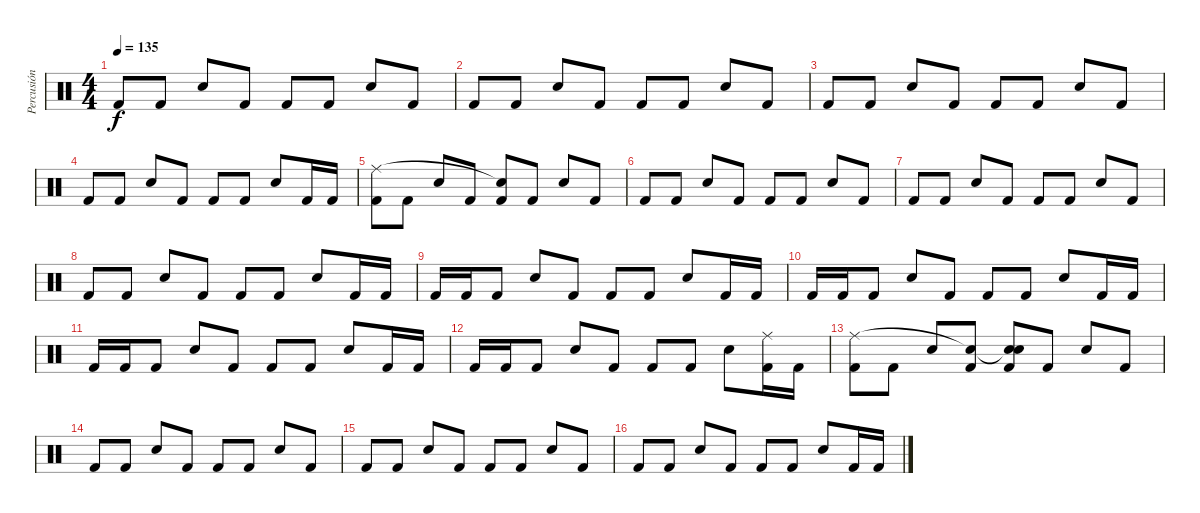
\track ("Percusión" "Percusión") {instrument percussion}
\staff {score}
\articulation defaults
\ts (4 4)
\tempo 135
\clef neutral
\ks c "Kick (hit) 2".8{dy f} "Kick (hit) 2".8 "Snare (hit) 2".8 "Kick (hit) 2".8 "Kick (hit) 2".8 "Kick (hit) 2".8 "Snare (hit) 2".8 "Kick (hit) 2".8
|
"Kick (hit) 2".8 "Kick (hit) 2".8 "Snare (hit) 2".8 "Kick (hit) 2".8 "Kick (hit) 2".8 "Kick (hit) 2".8 "Snare (hit) 2".8 "Kick (hit) 2".8 |
"Kick (hit) 2".8 "Kick (hit) 2".8 "Snare (hit) 2".8 "Kick (hit) 2".8 "Kick (hit) 2".8 "Kick (hit) 2".8 "Snare (hit) 2".8 "Kick (hit) 2".8 |
"Kick (hit) 2".8 "Kick (hit) 2".8 "Snare (hit) 2".8 "Kick (hit) 2".8 "Kick (hit) 2".8 "Kick (hit) 2".8 "Snare (hit) 2".8 "Kick (hit) 2".16 "Kick (hit) 2".16 |
("Kick (hit) 2" "Ride (middle)").8 "Kick (hit) 2".8 "Snare (hit) 2".8 "Kick (hit) 2".8 ("Kick (hit) 2" "Snare (hit)"{t}).8 "Kick (hit) 2".8 "Snare (hit) 2".8 "Kick (hit) 2".8 |
"Kick (hit) 2".8 "Kick (hit) 2".8 "Snare (hit) 2".8 "Kick (hit) 2".8 "Kick (hit) 2".8 "Kick (hit) 2".8 "Snare (hit) 2".8 "Kick (hit) 2".8 |
"Kick (hit) 2".8 "Kick (hit) 2".8 "Snare (hit) 2".8 "Kick (hit) 2".8 "Kick (hit) 2".8 "Kick (hit) 2".8 "Snare (hit) 2".8 "Kick (hit) 2".8 |
"Kick (hit) 2".8 "Kick (hit) 2".8 "Snare (hit) 2".8 "Kick (hit) 2".8 "Kick (hit) 2".8 "Kick (hit) 2".8 "Snare (hit) 2".8 "Kick (hit) 2".16 "Kick (hit) 2".16 |
"Kick (hit) 2".16 "Kick (hit) 2".16 "Kick (hit) 2".8 "Snare (hit) 2".8 "Kick (hit) 2".8 "Kick (hit) 2".8 "Kick (hit) 2".8 "Snare (hit) 2".8 "Kick (hit) 2".16 "Kick (hit) 2".16 |
"Kick (hit) 2".16 "Kick (hit) 2".16 "Kick (hit) 2".8 "Snare (hit) 2".8 "Kick (hit) 2".8 "Kick (hit) 2".8 "Kick (hit) 2".8 "Snare (hit) 2".8 "Kick (hit) 2".16 "Kick (hit) 2".16 |
"Kick (hit) 2".16 "Kick (hit) 2".16 "Kick (hit) 2".8 "Snare (hit) 2".8 "Kick (hit) 2".8 "Kick (hit) 2".8 "Kick (hit) 2".8 "Snare (hit) 2".8 "Kick (hit) 2".16 "Kick (hit) 2".16 |
"Kick (hit) 2".16 "Kick (hit) 2".16 "Kick (hit) 2".8 "Snare (hit) 2".8 "Kick (hit) 2".8 "Kick (hit) 2".8 "Kick (hit) 2".8 "Snare (hit) 2".8 ("Kick (hit) 2" "Ride (middle)").16 "Kick (hit) 2".16 |
("Kick (hit) 2" "Ride (middle)").8 "Kick (hit) 2".8 "Snare (hit) 2".8 ("Kick (hit) 2" "Snare (hit)"{t}).8 ("Kick (hit) 2" "Snare (hit)"{t} "Snare (hit)").8 "Kick (hit) 2".8 "Snare (hit) 2".8 "Kick (hit) 2".8 |
"Kick (hit) 2".8 "Kick (hit) 2".8 "Snare (hit) 2".8 "Kick (hit) 2".8 "Kick (hit) 2".8 "Kick (hit) 2".8 "Snare (hit) 2".8 "Kick (hit) 2".8 |
"Kick (hit) 2".8 "Kick (hit) 2".8 "Snare (hit) 2".8 "Kick (hit) 2".8 "Kick (hit) 2".8 "Kick (hit) 2".8 "Snare (hit) 2".8 "Kick (hit) 2".8 |
"Kick (hit) 2".8 "Kick (hit) 2".8 "Snare (hit) 2".8 "Kick (hit) 2".8 "Kick (hit) 2".8 "Kick (hit) 2".8 "Snare (hit) 2".8 "Kick (hit) 2".16 "Kick (hit) 2".16
